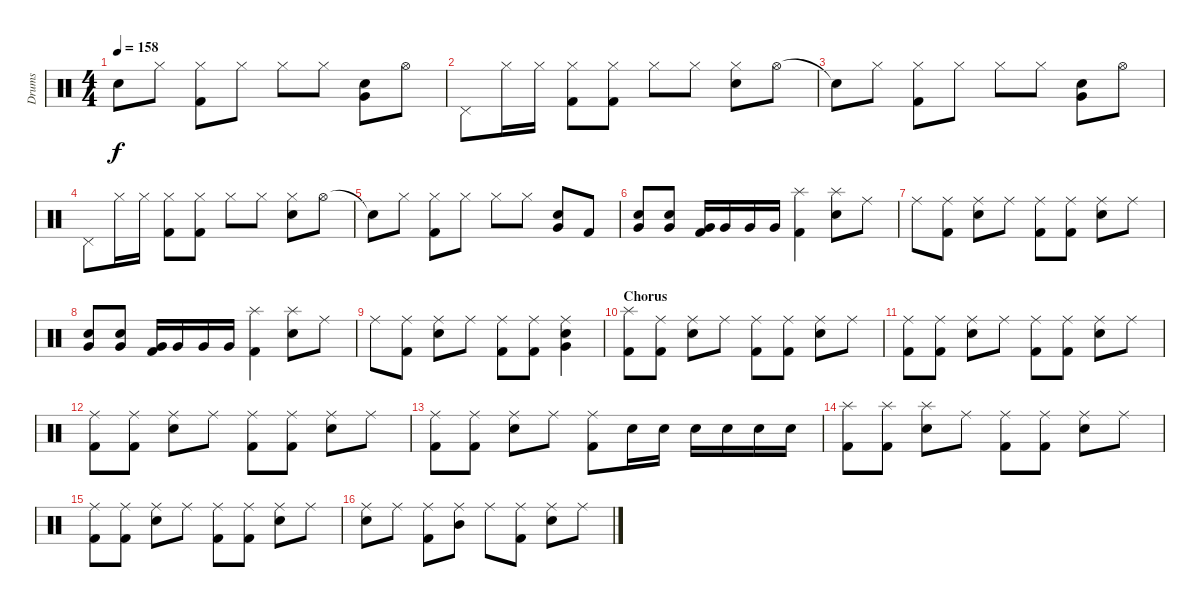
\track ("Drums" "Drums") {instrument percussion}
\staff {score}
\articulation defaults
\ts (4 4)
\tempo 158
\clef neutral
\ks c "Snare (hit)"{t}.8{dy f} "Hi-Hat (closed)".8
("Hi-Hat (closed)" "Kick (hit) 2").8 "Hi-Hat (closed)".8 "Hi-Hat (closed)".8 "Hi-Hat (closed)".8 ("Very Low Tom (hit)" "Electric Snare (hit)").8 "Hi-Hat (open)".8 |
"Pedal Hi-Hat (hit)".8 "Hi-Hat (closed)".16 "Hi-Hat (closed)".16 ("Hi-Hat (closed)" "Kick (hit) 2").8 ("Hi-Hat (closed)" "Kick (hit) 2").8 "Hi-Hat (closed)".8 "Hi-Hat (closed)".8 ("Hi-Hat (closed)" "Electric Snare (hit)").8 "Hi-Hat (open)".8 |
"Snare (hit)"{t}.8 "Hi-Hat (closed)".8 ("Hi-Hat (closed)" "Kick (hit) 2").8 "Hi-Hat (closed)".8 "Hi-Hat (closed)".8 "Hi-Hat (closed)".8 ("Very Low Tom (hit)" "Electric Snare (hit)").8 "Hi-Hat (open)".8 |
"Pedal Hi-Hat (hit)".8 "Hi-Hat (closed)".16 "Hi-Hat (closed)".16 ("Hi-Hat (closed)" "Kick (hit) 2").8 ("Hi-Hat (closed)" "Kick (hit) 2").8 "Hi-Hat (closed)".8 "Hi-Hat (closed)".8 ("Hi-Hat (closed)" "Electric Snare (hit)").8 "Hi-Hat (open)".8 |
"Snare (hit)"{t}.8 "Hi-Hat (closed)".8 ("Hi-Hat (closed)" "Kick (hit) 2").8 "Hi-Hat (closed)".8 "Hi-Hat (closed)".8 "Hi-Hat (closed)".8 ("Very Low Tom (hit)" "Electric Snare (hit)").8 "Kick (hit) 2".8 |
("Very Low Tom (hit)" "Electric Snare (hit)").8 ("Very Low Tom (hit)" "Electric Snare (hit)").8 ("Very Low Tom (hit)" "Kick (hit) 2").16 "Very Low Tom (hit)".16 "Very Low Tom (hit)".16 "Very Low Tom (hit)".16 ("Splash (hit)" "Kick (hit) 2").4 ("Splash (hit)" "Electric Snare (hit)").8 "Ride (middle)".8 |
"Ride (middle)".8 ("Ride (middle)" "Kick (hit) 2").8 ("Ride (middle)" "Electric Snare (hit)").8 "Ride (middle)".8 ("Ride (middle)" "Kick (hit) 2").8 ("Ride (middle)" "Kick (hit) 2").8 ("Ride (middle)" "Electric Snare (hit)").8 "Ride (middle)".8 |
("Very Low Tom (hit)" "Electric Snare (hit)").8 ("Very Low Tom (hit)" "Electric Snare (hit)").8 ("Very Low Tom (hit)" "Kick (hit) 2").16 "Very Low Tom (hit)".16 "Very Low Tom (hit)".16 "Very Low Tom (hit)".16 ("Splash (hit)" "Kick (hit) 2").4 ("Splash (hit)" "Electric Snare (hit)").8 "Ride (middle)".8 |
"Ride (middle)".8 ("Ride (middle)" "Kick (hit) 2").8 ("Ride (middle)" "Electric Snare (hit)").8 "Ride (middle)".8 ("Ride (middle)" "Kick (hit) 2").8 ("Ride (middle)" "Kick (hit) 2").8 ("Ride (middle)" "Very Low Tom (hit)" "Electric Snare (hit)").4 |
\section ("" "Chorus")
("Splash (hit)" "Kick (hit) 2").8 ("Ride (middle)" "Kick (hit) 2").8 ("Ride (middle)" "Electric Snare (hit)").8 "Ride (middle)".8 ("Ride (middle)" "Kick (hit) 2").8 ("Ride (middle)" "Kick (hit) 2").8 ("Ride (middle)" "Electric Snare (hit)").8 "Ride (middle)".8 |
("Ride (middle)" "Kick (hit) 2").8 ("Ride (middle)" "Kick (hit) 2").8 ("Ride (middle)" "Electric Snare (hit)").8 "Ride (middle)".8 ("Ride (middle)" "Kick (hit) 2").8 ("Ride (middle)" "Kick (hit) 2").8 ("Ride (middle)" "Electric Snare (hit)").8 "Ride (middle)".8 |
("Ride (middle)" "Kick (hit) 2").8 ("Ride (middle)" "Kick (hit) 2").8 ("Ride (middle)" "Electric Snare (hit)").8 "Ride (middle)".8 ("Ride (middle)" "Kick (hit) 2").8 ("Ride (middle)" "Kick (hit) 2").8 ("Ride (middle)" "Electric Snare (hit)").8 "Ride (middle)".8 |
("Ride (middle)" "Kick (hit) 2").8 ("Ride (middle)" "Kick (hit) 2").8 ("Ride (middle)" "Electric Snare (hit)").8 "Ride (middle)".8 ("Ride (middle)" "Kick (hit) 2").8 "Electric Snare (hit)".16 "Electric Snare (hit)".16 "Electric Snare (hit)".16 "Electric Snare (hit)".16 "Electric Snare (hit)".16 "Electric Snare (hit)".16 |
("Splash (hit)" "Kick (hit) 2").8 ("Splash (hit)" "Kick (hit) 2").8 ("Splash (hit)" "Electric Snare (hit)").8 "Ride (middle)".8 ("Ride (middle)" "Kick (hit) 2").8 ("Ride (middle)" "Kick (hit) 2").8 ("Ride (middle)" "Electric Snare (hit)").8 "Ride (middle)".8 |
("Ride (middle)" "Kick (hit) 2").8 ("Ride (middle)" "Kick (hit) 2").8 ("Ride (middle)" "Electric Snare (hit)").8 "Ride (middle)".8 ("Ride (middle)" "Kick (hit) 2").8 ("Ride (middle)" "Kick (hit) 2").8 ("Ride (middle)" "Electric Snare (hit)").8 "Ride (middle)".8 |
("Ride (middle)" "Electric Snare (hit)").8 "Ride (middle)".8 ("Ride (middle)" "Kick (hit) 2").8 ("Ride (middle)" "Mid Tom (hit)").8 "Ride (middle)".8 ("Ride (middle)" "Kick (hit) 2").8 ("Ride (middle)" "Electric Snare (hit)").8 "Ride (middle)".8
